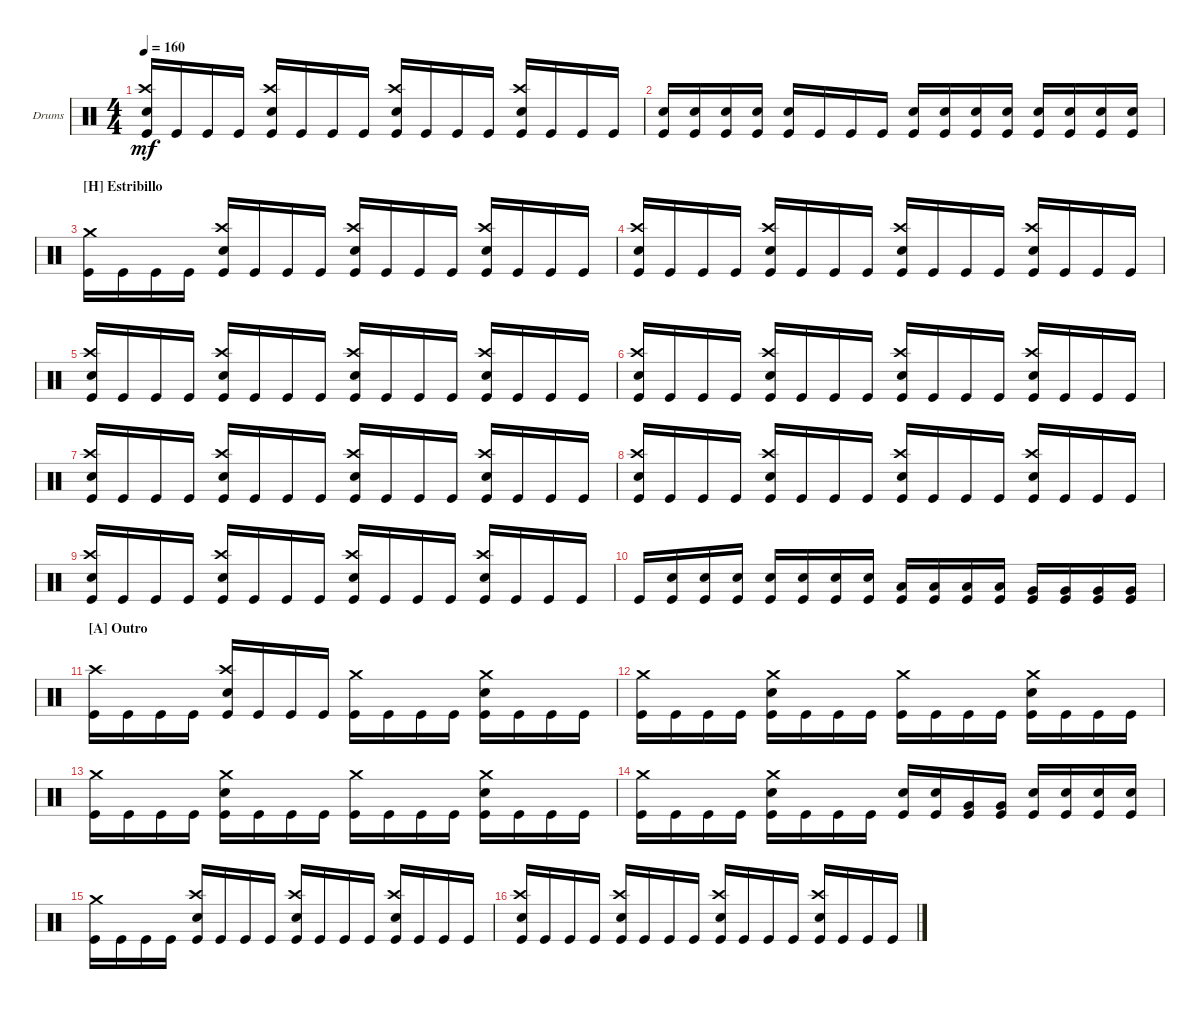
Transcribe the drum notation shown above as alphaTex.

\bracketExtendMode groupsimilarinstruments
\firstSystemTrackNameOrientation horizontal
\otherSystemsTrackNameOrientation horizontal
\track ("Nick Augusto" "Drums") {instrument percussion}
\staff {score}
\articulation defaults
\ts (4 4)
\tempo 160
\clef neutral
\ks c
("Kick (hit)" "Crash high (hit)" "Snare (hit) 2").16{dy mf} "Kick (hit)".16 "Kick (hit)".16 "Kick (hit)".16 ("Kick (hit)" "Crash high (hit)" "Snare (hit) 2").16 "Kick (hit)".16 "Kick (hit)".16 "Kick (hit)".16 ("Kick (hit)" "Crash high (hit)" "Snare (hit) 2").16 "Kick (hit)".16 "Kick (hit)".16 "Kick (hit)".16 ("Kick (hit)" "Crash high (hit)" "Snare (hit) 2").16 "Kick (hit)".16 "Kick (hit)".16 "Kick (hit)".16 |
("Kick (hit)" "Snare (hit) 2").16 ("Kick (hit)" "Snare (hit) 2").16 ("Kick (hit)" "Snare (hit) 2").16 ("Kick (hit)" "Snare (hit) 2").16 ("Kick (hit)" "Snare (hit) 2").16 "Kick (hit)".16 "Kick (hit)".16 "Kick (hit)".16 ("Kick (hit)" "Snare (hit) 2").16 ("Kick (hit)" "Snare (hit) 2").16 ("Kick (hit)" "Snare (hit) 2").16 ("Kick (hit)" "Snare (hit) 2").16 ("Kick (hit)" "Snare (hit) 2").16 ("Kick (hit)" "Snare (hit) 2").16 ("Kick (hit)" "Snare (hit) 2").16 ("Kick (hit)" "Snare (hit) 2").16 |
\section ("H" "Estribillo")
("Kick (hit)" "Crash medium (hit)").16 "Kick (hit)".16 "Kick (hit)".16 "Kick (hit)".16 ("Kick (hit)" "Crash high (hit)" "Snare (hit) 2").16 "Kick (hit)".16 "Kick (hit)".16 "Kick (hit)".16 ("Kick (hit)" "Crash high (hit)" "Snare (hit) 2").16 "Kick (hit)".16 "Kick (hit)".16 "Kick (hit)".16 ("Kick (hit)" "Crash high (hit)" "Snare (hit) 2").16 "Kick (hit)".16 "Kick (hit)".16 "Kick (hit)".16 |
("Kick (hit)" "Crash high (hit)" "Snare (hit) 2").16 "Kick (hit)".16 "Kick (hit)".16 "Kick (hit)".16 ("Kick (hit)" "Crash high (hit)" "Snare (hit) 2").16 "Kick (hit)".16 "Kick (hit)".16 "Kick (hit)".16 ("Kick (hit)" "Crash high (hit)" "Snare (hit) 2").16 "Kick (hit)".16 "Kick (hit)".16 "Kick (hit)".16 ("Kick (hit)" "Crash high (hit)" "Snare (hit) 2").16 "Kick (hit)".16 "Kick (hit)".16 "Kick (hit)".16 |
("Kick (hit)" "Crash high (hit)" "Snare (hit) 2").16 "Kick (hit)".16 "Kick (hit)".16 "Kick (hit)".16 ("Kick (hit)" "Crash high (hit)" "Snare (hit) 2").16 "Kick (hit)".16 "Kick (hit)".16 "Kick (hit)".16 ("Kick (hit)" "Crash high (hit)" "Snare (hit) 2").16 "Kick (hit)".16 "Kick (hit)".16 "Kick (hit)".16 ("Kick (hit)" "Crash high (hit)" "Snare (hit) 2").16 "Kick (hit)".16 "Kick (hit)".16 "Kick (hit)".16 |
("Kick (hit)" "Crash high (hit)" "Snare (hit) 2").16 "Kick (hit)".16 "Kick (hit)".16 "Kick (hit)".16 ("Kick (hit)" "Crash high (hit)" "Snare (hit) 2").16 "Kick (hit)".16 "Kick (hit)".16 "Kick (hit)".16 ("Kick (hit)" "Crash high (hit)" "Snare (hit) 2").16 "Kick (hit)".16 "Kick (hit)".16 "Kick (hit)".16 ("Kick (hit)" "Crash high (hit)" "Snare (hit) 2").16 "Kick (hit)".16 "Kick (hit)".16 "Kick (hit)".16 |
("Kick (hit)" "Crash high (hit)" "Snare (hit) 2").16 "Kick (hit)".16 "Kick (hit)".16 "Kick (hit)".16 ("Kick (hit)" "Crash high (hit)" "Snare (hit) 2").16 "Kick (hit)".16 "Kick (hit)".16 "Kick (hit)".16 ("Kick (hit)" "Crash high (hit)" "Snare (hit) 2").16 "Kick (hit)".16 "Kick (hit)".16 "Kick (hit)".16 ("Kick (hit)" "Crash high (hit)" "Snare (hit) 2").16 "Kick (hit)".16 "Kick (hit)".16 "Kick (hit)".16 |
("Kick (hit)" "Crash high (hit)" "Snare (hit) 2").16 "Kick (hit)".16 "Kick (hit)".16 "Kick (hit)".16 ("Kick (hit)" "Crash high (hit)" "Snare (hit) 2").16 "Kick (hit)".16 "Kick (hit)".16 "Kick (hit)".16 ("Kick (hit)" "Crash high (hit)" "Snare (hit) 2").16 "Kick (hit)".16 "Kick (hit)".16 "Kick (hit)".16 ("Kick (hit)" "Crash high (hit)" "Snare (hit) 2").16 "Kick (hit)".16 "Kick (hit)".16 "Kick (hit)".16 |
("Kick (hit)" "Crash high (hit)" "Snare (hit) 2").16 "Kick (hit)".16 "Kick (hit)".16 "Kick (hit)".16 ("Kick (hit)" "Crash high (hit)" "Snare (hit) 2").16 "Kick (hit)".16 "Kick (hit)".16 "Kick (hit)".16 ("Kick (hit)" "Crash high (hit)" "Snare (hit) 2").16 "Kick (hit)".16 "Kick (hit)".16 "Kick (hit)".16 ("Kick (hit)" "Crash high (hit)" "Snare (hit) 2").16 "Kick (hit)".16 "Kick (hit)".16 "Kick (hit)".16 |
"Kick (hit)".16 ("Kick (hit)" "Snare (hit) 2").16 ("Kick (hit)" "Snare (hit) 2").16 ("Kick (hit)" "Snare (hit) 2").16 ("Kick (hit)" "Snare (hit) 2").16 ("Kick (hit)" "Snare (hit) 2").16 ("Kick (hit)" "Snare (hit) 2").16 ("Kick (hit)" "Snare (hit) 2").16 ("Kick (hit)" "Low Tom (hit)").16 ("Kick (hit)" "Low Tom (hit)").16 ("Kick (hit)" "Low Tom (hit)").16 ("Kick (hit)" "Low Tom (hit)").16 ("Kick (hit)" "Very Low Tom (hit)").16 ("Kick (hit)" "Very Low Tom (hit)").16 ("Kick (hit)" "Very Low Tom (hit)").16 ("Kick (hit)" "Very Low Tom (hit)").16 |
\section ("A" "Outro")
("Kick (hit)" "Crash high (hit)").16 "Kick (hit)".16 "Kick (hit)".16 "Kick (hit)".16 ("Kick (hit)" "Snare (hit) 2" "Crash high (hit)").16 "Kick (hit)".16 "Kick (hit)".16 "Kick (hit)".16 ("Kick (hit)" "Crash medium (hit)").16 "Kick (hit)".16 "Kick (hit)".16 "Kick (hit)".16 ("Kick (hit)" "Snare (hit) 2" "Crash medium (hit)").16 "Kick (hit)".16 "Kick (hit)".16 "Kick (hit)".16 |
("Kick (hit)" "Crash medium (hit)").16 "Kick (hit)".16 "Kick (hit)".16 "Kick (hit)".16 ("Kick (hit)" "Snare (hit) 2" "Crash medium (hit)").16 "Kick (hit)".16 "Kick (hit)".16 "Kick (hit)".16 ("Kick (hit)" "Crash medium (hit)").16 "Kick (hit)".16 "Kick (hit)".16 "Kick (hit)".16 ("Kick (hit)" "Snare (hit) 2" "Crash medium (hit)").16 "Kick (hit)".16 "Kick (hit)".16 "Kick (hit)".16 |
("Kick (hit)" "Crash medium (hit)").16 "Kick (hit)".16 "Kick (hit)".16 "Kick (hit)".16 ("Kick (hit)" "Snare (hit) 2" "Crash medium (hit)").16 "Kick (hit)".16 "Kick (hit)".16 "Kick (hit)".16 ("Kick (hit)" "Crash medium (hit)").16 "Kick (hit)".16 "Kick (hit)".16 "Kick (hit)".16 ("Kick (hit)" "Snare (hit) 2" "Crash medium (hit)").16 "Kick (hit)".16 "Kick (hit)".16 "Kick (hit)".16 |
("Kick (hit)" "Crash medium (hit)").16 "Kick (hit)".16 "Kick (hit)".16 "Kick (hit)".16 ("Kick (hit)" "Snare (hit) 2" "Crash medium (hit)").16 "Kick (hit)".16 "Kick (hit)".16 "Kick (hit)".16 ("Kick (hit)" "Snare (hit) 2").16 ("Kick (hit)" "Snare (hit) 2").16 ("Kick (hit)" "Very Low Tom (hit)").16 ("Kick (hit)" "Very Low Tom (hit)").16 ("Kick (hit)" "Snare (hit) 2").16 ("Kick (hit)" "Snare (hit) 2").16 ("Kick (hit)" "Snare (hit) 2").16 ("Kick (hit)" "Snare (hit) 2").16 |
("Kick (hit)" "Crash medium (hit)").16 "Kick (hit)".16 "Kick (hit)".16 "Kick (hit)".16 ("Kick (hit)" "Crash high (hit)" "Snare (hit) 2").16 "Kick (hit)".16 "Kick (hit)".16 "Kick (hit)".16 ("Kick (hit)" "Crash high (hit)" "Snare (hit) 2").16 "Kick (hit)".16 "Kick (hit)".16 "Kick (hit)".16 ("Kick (hit)" "Crash high (hit)" "Snare (hit) 2").16 "Kick (hit)".16 "Kick (hit)".16 "Kick (hit)".16 |
("Kick (hit)" "Crash high (hit)" "Snare (hit) 2").16 "Kick (hit)".16 "Kick (hit)".16 "Kick (hit)".16 ("Kick (hit)" "Crash high (hit)" "Snare (hit) 2").16 "Kick (hit)".16 "Kick (hit)".16 "Kick (hit)".16 ("Kick (hit)" "Crash high (hit)" "Snare (hit) 2").16 "Kick (hit)".16 "Kick (hit)".16 "Kick (hit)".16 ("Kick (hit)" "Crash high (hit)" "Snare (hit) 2").16 "Kick (hit)".16 "Kick (hit)".16 "Kick (hit)".16
